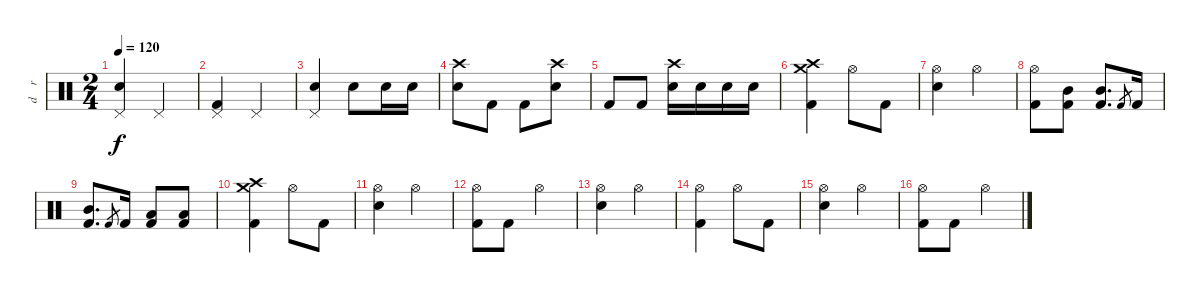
\track ("d    r     u    m    s" "d    r    ") {instrument percussion}
\staff {score}
\articulation defaults
\ts (2 4)
\tempo 120
\clef neutral
\ks c
("Pedal Hi-Hat (hit)" "Snare (hit) 2").4{dy f} "Pedal Hi-Hat (hit)".4 |
("Pedal Hi-Hat (hit)" "Kick (hit) 2").4 "Pedal Hi-Hat (hit)".4 |
("Pedal Hi-Hat (hit)" "Snare (hit) 2").4 "Snare (hit) 2".8 "Snare (hit) 2".16 "Snare (hit) 2".16 |
("Crash high (hit)" "Snare (hit) 2").8 "Kick (hit) 2".8 "Kick (hit) 2".8 ("Crash high (hit)" "Snare (hit) 2").8 |
"Kick (hit) 2".8 "Kick (hit) 2".8 ("Crash high (hit)" "Snare (hit) 2").16 "Snare (hit) 2".16 "Snare (hit) 2".16 "Snare (hit) 2".16 |
("Crash high (hit)" "Crash medium (hit)" "Kick (hit) 2").4 "Hi-Hat (open)".8 "Kick (hit) 2".8 |
("Hi-Hat (open)" "Snare (hit) 2").4 "Hi-Hat (open)".4 |
("Hi-Hat (open)" "Kick (hit) 2").8 ("Mid Tom (hit)" "Kick (hit) 2").8 ("Mid Tom (hit)" "Kick (hit) 2").8{d} "Kick (hit) 2".8{gr} "Kick (hit) 2".16 |
("Mid Tom (hit)" "Kick (hit) 2").8{d} "Kick (hit) 2".8{gr} "Kick (hit) 2".16 ("Low Tom (hit)" "Kick (hit) 2").8 ("Low Tom (hit)" "Kick (hit) 2").8 |
("Crash high (hit)" "Crash medium (hit)" "Kick (hit) 2").4 "Hi-Hat (open)".8 "Kick (hit) 2".8 |
("Hi-Hat (open)" "Snare (hit) 2").4 "Hi-Hat (open)".4 |
("Hi-Hat (open)" "Kick (hit) 2").8 "Kick (hit) 2".8 "Hi-Hat (open)".4 |
("Hi-Hat (open)" "Snare (hit) 2").4 "Hi-Hat (open)".4 |
("Hi-Hat (open)" "Kick (hit) 2").4 "Hi-Hat (open)".8 "Kick (hit) 2".8 |
("Hi-Hat (open)" "Snare (hit) 2").4 "Hi-Hat (open)".4 |
("Hi-Hat (open)" "Kick (hit) 2").8 "Kick (hit) 2".8 "Hi-Hat (open)".4
